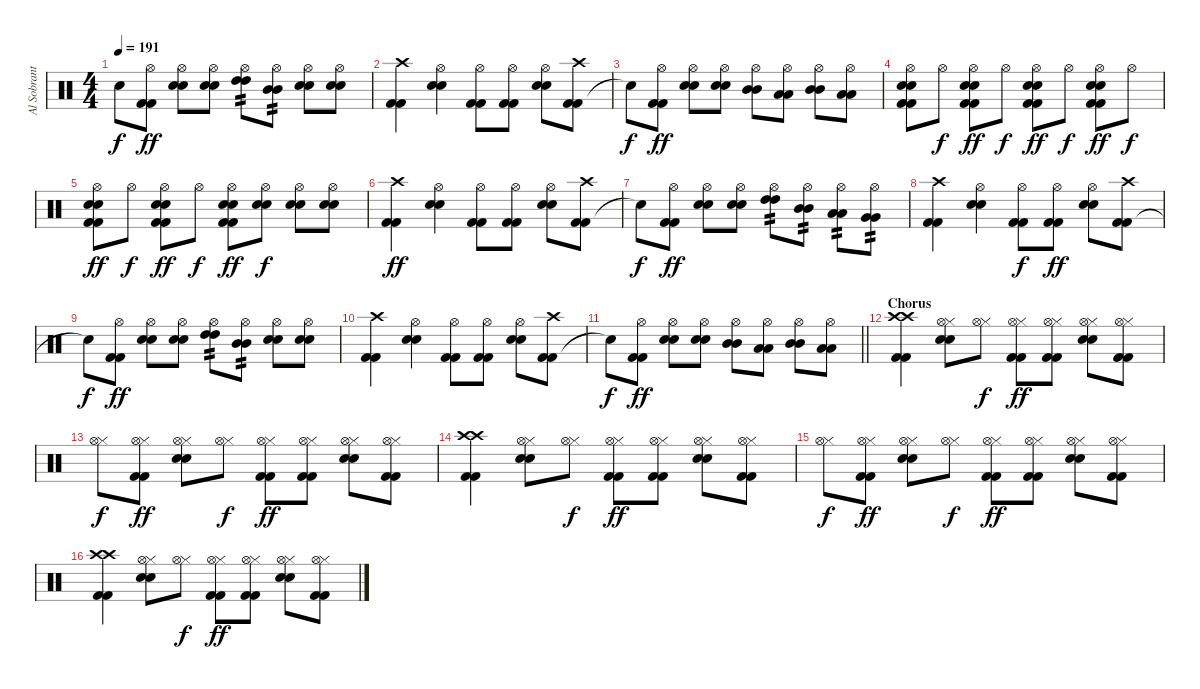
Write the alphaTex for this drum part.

\track ("Al Sobrante (Drums)" "Al Sobrant") {instrument percussion}
\staff {score}
\articulation defaults
\ts (4 4)
\tempo 191
\clef neutral
\ks c "Snare (hit)"{t}.8{dy f}
("Kick (hit) 2" "Kick (hit) 2" "Hi-Hat (open)").8{dy ff} ("Electric Snare (hit)" "Electric Snare (hit)" "Hi-Hat (open)").8 ("Electric Snare (hit)" "Electric Snare (hit)" "Hi-Hat (open)").8 ("High Tom (hit)" "High Tom (hit)" "Hi-Hat (open)").8{tp 2} ("Mid Tom (hit)" "Mid Tom (hit)" "Hi-Hat (open)").8{tp 2} ("Electric Snare (hit)" "Electric Snare (hit)" "Hi-Hat (open)").8 ("Electric Snare (hit)" "Electric Snare (hit)" "Hi-Hat (open)").8 |
("Kick (hit) 2" "Kick (hit) 2" "Crash high (hit)").4 ("Electric Snare (hit)" "Electric Snare (hit)" "Hi-Hat (open)").4 ("Kick (hit) 2" "Kick (hit) 2" "Hi-Hat (open)").8 ("Kick (hit) 2" "Kick (hit) 2" "Hi-Hat (open)").8 ("Electric Snare (hit)" "Electric Snare (hit)" "Hi-Hat (open)").8 ("Kick (hit) 2" "Kick (hit) 2" "Crash high (hit)").8 |
"Snare (hit)"{t}.8{dy f} ("Kick (hit) 2" "Kick (hit) 2" "Hi-Hat (open)").8{dy ff} ("Electric Snare (hit)" "Electric Snare (hit)" "Hi-Hat (open)").8 ("Electric Snare (hit)" "Electric Snare (hit)" "Hi-Hat (open)").8 ("Mid Tom (hit)" "Mid Tom (hit)" "Hi-Hat (open)").8 ("Low Tom (hit)" "Low Tom (hit)" "Hi-Hat (open)").8 ("Mid Tom (hit)" "Mid Tom (hit)" "Hi-Hat (open)").8 ("Low Tom (hit)" "Low Tom (hit)" "Hi-Hat (open)").8 |
("Kick (hit) 2" "Kick (hit) 2" "Electric Snare (hit)" "Electric Snare (hit)" "Hi-Hat (open)").8 "Hi-Hat (open)".8{dy f} ("Kick (hit) 2" "Kick (hit) 2" "Electric Snare (hit)" "Electric Snare (hit)" "Hi-Hat (open)").8{dy ff} "Hi-Hat (open)".8{dy f} ("Kick (hit) 2" "Kick (hit) 2" "Electric Snare (hit)" "Electric Snare (hit)" "Hi-Hat (open)").8{dy ff} "Hi-Hat (open)".8{dy f} ("Kick (hit) 2" "Kick (hit) 2" "Electric Snare (hit)" "Electric Snare (hit)" "Hi-Hat (open)").8{dy ff} "Hi-Hat (open)".8{dy f} |
("Kick (hit) 2" "Kick (hit) 2" "Electric Snare (hit)" "Electric Snare (hit)" "Hi-Hat (open)").8{dy ff} "Hi-Hat (open)".8{dy f} ("Kick (hit) 2" "Kick (hit) 2" "Electric Snare (hit)" "Electric Snare (hit)" "Hi-Hat (open)").8{dy ff} "Hi-Hat (open)".8{dy f} ("Kick (hit) 2" "Kick (hit) 2" "Electric Snare (hit)" "Electric Snare (hit)" "Hi-Hat (open)").8{dy ff} ("Electric Snare (hit)" "Electric Snare (hit)" "Hi-Hat (open)").8{dy f} ("Electric Snare (hit)" "Electric Snare (hit)" "Hi-Hat (open)").8 ("Electric Snare (hit)" "Electric Snare (hit)" "Hi-Hat (open)").8 |
("Kick (hit) 2" "Kick (hit) 2" "Crash high (hit)").4{dy ff} ("Electric Snare (hit)" "Electric Snare (hit)" "Hi-Hat (open)").4 ("Kick (hit) 2" "Kick (hit) 2" "Hi-Hat (open)").8 ("Kick (hit) 2" "Kick (hit) 2" "Hi-Hat (open)").8 ("Electric Snare (hit)" "Electric Snare (hit)" "Hi-Hat (open)").8 ("Kick (hit) 2" "Kick (hit) 2" "Crash high (hit)").8 |
"Snare (hit)"{t}.8{dy f} ("Kick (hit) 2" "Kick (hit) 2" "Hi-Hat (open)").8{dy ff} ("Electric Snare (hit)" "Electric Snare (hit)" "Hi-Hat (open)").8 ("Electric Snare (hit)" "Electric Snare (hit)" "Hi-Hat (open)").8 ("High Tom (hit)" "High Tom (hit)" "Hi-Hat (open)").8{tp 2} ("Mid Tom (hit)" "Mid Tom (hit)" "Hi-Hat (open)").8{tp 2} ("Low Tom (hit)" "Low Tom (hit)" "Hi-Hat (open)").8{tp 2} ("Very Low Tom (hit)" "Very Low Tom (hit)" "Hi-Hat (open)").8{tp 2} |
("Kick (hit) 2" "Kick (hit) 2" "Crash high (hit)").4 ("Electric Snare (hit)" "Electric Snare (hit)" "Hi-Hat (open)").4 ("Kick (hit) 2" "Kick (hit) 2" "Hi-Hat (open)").8{dy f} ("Kick (hit) 2" "Kick (hit) 2" "Hi-Hat (open)").8{dy ff} ("Electric Snare (hit)" "Electric Snare (hit)" "Hi-Hat (open)").8 ("Kick (hit) 2" "Kick (hit) 2" "Crash high (hit)").8 |
"Snare (hit)"{t}.8{dy f} ("Kick (hit) 2" "Kick (hit) 2" "Hi-Hat (open)").8{dy ff} ("Electric Snare (hit)" "Electric Snare (hit)" "Hi-Hat (open)").8 ("Electric Snare (hit)" "Electric Snare (hit)" "Hi-Hat (open)").8 ("High Tom (hit)" "High Tom (hit)" "Hi-Hat (open)").8{tp 2} ("Mid Tom (hit)" "Mid Tom (hit)" "Hi-Hat (open)").8{tp 2} ("Electric Snare (hit)" "Electric Snare (hit)" "Hi-Hat (open)").8 ("Electric Snare (hit)" "Electric Snare (hit)" "Hi-Hat (open)").8 |
("Kick (hit) 2" "Kick (hit) 2" "Crash high (hit)").4 ("Electric Snare (hit)" "Electric Snare (hit)" "Hi-Hat (open)").4 ("Kick (hit) 2" "Kick (hit) 2" "Hi-Hat (open)").8 ("Kick (hit) 2" "Kick (hit) 2" "Hi-Hat (open)").8 ("Electric Snare (hit)" "Electric Snare (hit)" "Hi-Hat (open)").8 ("Kick (hit) 2" "Kick (hit) 2" "Crash high (hit)").8 |
\barLineRight lightlight "Snare (hit)"{t}.8{dy f}
("Kick (hit) 2" "Kick (hit) 2" "Hi-Hat (open)").8{dy ff} ("Electric Snare (hit)" "Electric Snare (hit)" "Hi-Hat (open)").8 ("Electric Snare (hit)" "Electric Snare (hit)" "Hi-Hat (open)").8 ("Mid Tom (hit)" "Mid Tom (hit)" "Hi-Hat (open)").8 ("Low Tom (hit)" "Low Tom (hit)" "Hi-Hat (open)").8 ("Mid Tom (hit)" "Mid Tom (hit)" "Hi-Hat (open)").8 ("Low Tom (hit)" "Low Tom (hit)" "Hi-Hat (open)").8 |
\section ("" "Chorus")
("Kick (hit) 2" "Kick (hit) 2" "Crash high (hit)" "Crash high (hit)").4 ("Electric Snare (hit)" "Electric Snare (hit)" "Hi-Hat (closed)" "Hi-Hat (open)").8 ("Hi-Hat (closed)" "Hi-Hat (open)").8{dy f} ("Kick (hit) 2" "Kick (hit) 2" "Hi-Hat (closed)" "Hi-Hat (open)").8{dy ff} ("Kick (hit) 2" "Kick (hit) 2" "Hi-Hat (closed)" "Hi-Hat (open)").8 ("Electric Snare (hit)" "Electric Snare (hit)" "Hi-Hat (closed)" "Hi-Hat (open)").8 ("Kick (hit) 2" "Kick (hit) 2" "Hi-Hat (closed)" "Hi-Hat (open)").8 |
("Hi-Hat (closed)" "Hi-Hat (open)").8{dy f} ("Kick (hit) 2" "Kick (hit) 2" "Hi-Hat (closed)" "Hi-Hat (open)").8{dy ff} ("Electric Snare (hit)" "Electric Snare (hit)" "Hi-Hat (closed)" "Hi-Hat (open)").8 ("Hi-Hat (closed)" "Hi-Hat (open)").8{dy f} ("Kick (hit) 2" "Kick (hit) 2" "Hi-Hat (closed)" "Hi-Hat (open)").8{dy ff} ("Kick (hit) 2" "Kick (hit) 2" "Hi-Hat (closed)" "Hi-Hat (open)").8 ("Electric Snare (hit)" "Electric Snare (hit)" "Hi-Hat (closed)" "Hi-Hat (open)").8 ("Kick (hit) 2" "Kick (hit) 2" "Hi-Hat (closed)" "Hi-Hat (open)").8 |
("Kick (hit) 2" "Kick (hit) 2" "Crash high (hit)" "Crash high (hit)").4 ("Electric Snare (hit)" "Electric Snare (hit)" "Hi-Hat (closed)" "Hi-Hat (open)").8 ("Hi-Hat (closed)" "Hi-Hat (open)").8{dy f} ("Kick (hit) 2" "Kick (hit) 2" "Hi-Hat (closed)" "Hi-Hat (open)").8{dy ff} ("Kick (hit) 2" "Kick (hit) 2" "Hi-Hat (closed)" "Hi-Hat (open)").8 ("Electric Snare (hit)" "Electric Snare (hit)" "Hi-Hat (closed)" "Hi-Hat (open)").8 ("Kick (hit) 2" "Kick (hit) 2" "Hi-Hat (closed)" "Hi-Hat (open)").8 |
("Hi-Hat (closed)" "Hi-Hat (open)").8{dy f} ("Kick (hit) 2" "Kick (hit) 2" "Hi-Hat (closed)" "Hi-Hat (open)").8{dy ff} ("Electric Snare (hit)" "Electric Snare (hit)" "Hi-Hat (closed)" "Hi-Hat (open)").8 ("Hi-Hat (closed)" "Hi-Hat (open)").8{dy f} ("Kick (hit) 2" "Kick (hit) 2" "Hi-Hat (closed)" "Hi-Hat (open)").8{dy ff} ("Kick (hit) 2" "Kick (hit) 2" "Hi-Hat (closed)" "Hi-Hat (open)").8 ("Electric Snare (hit)" "Electric Snare (hit)" "Hi-Hat (closed)" "Hi-Hat (open)").8 ("Kick (hit) 2" "Kick (hit) 2" "Hi-Hat (closed)" "Hi-Hat (open)").8 |
("Kick (hit) 2" "Kick (hit) 2" "Crash high (hit)" "Crash high (hit)").4 ("Electric Snare (hit)" "Electric Snare (hit)" "Hi-Hat (closed)" "Hi-Hat (open)").8 ("Hi-Hat (closed)" "Hi-Hat (open)").8{dy f} ("Kick (hit) 2" "Kick (hit) 2" "Hi-Hat (closed)" "Hi-Hat (open)").8{dy ff} ("Kick (hit) 2" "Kick (hit) 2" "Hi-Hat (closed)" "Hi-Hat (open)").8 ("Electric Snare (hit)" "Electric Snare (hit)" "Hi-Hat (closed)" "Hi-Hat (open)").8 ("Kick (hit) 2" "Kick (hit) 2" "Hi-Hat (closed)" "Hi-Hat (open)").8
